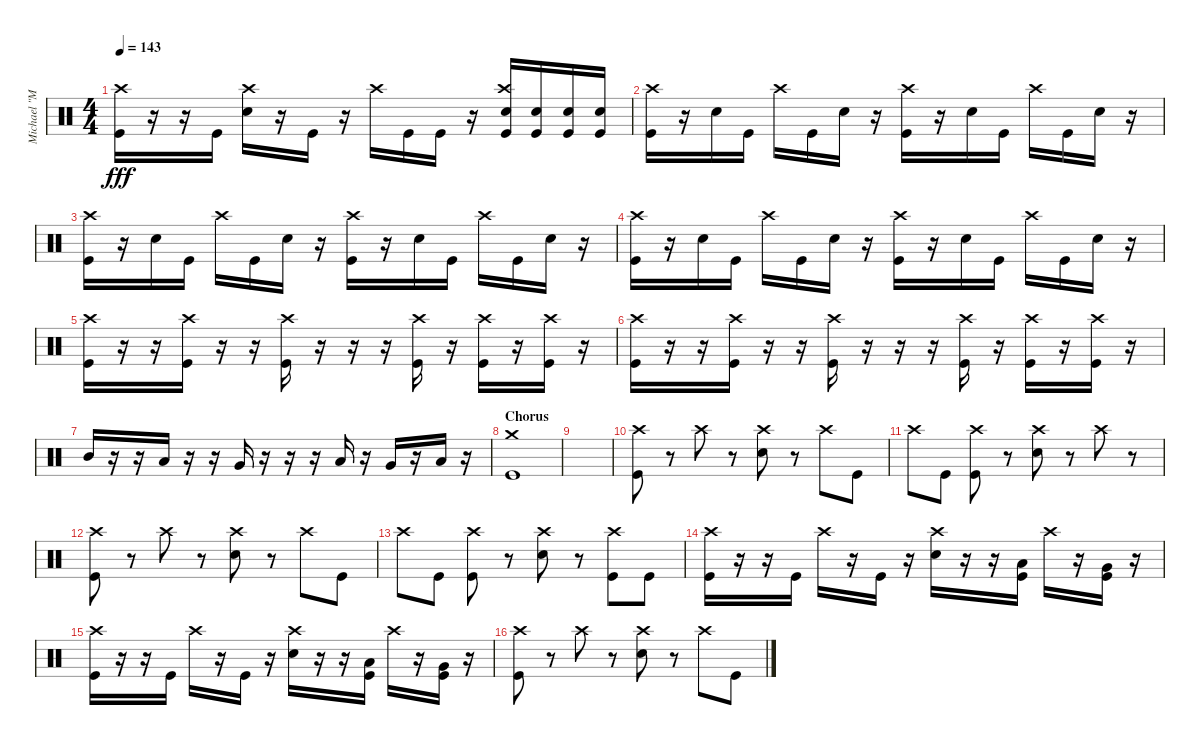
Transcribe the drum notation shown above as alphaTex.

\track ("Michael \"Moose\" Thomas" "Michael \"M") {instrument percussion}
\staff {score}
\articulation defaults
\ts (4 4)
\tempo 143
\clef neutral
\ks c
("Kick (hit)" "Crash high (hit)").16{dy fff} r.16 r.16 "Kick (hit)".16 ("Snare (hit) 2" "Crash high (hit)").16 r.16 "Kick (hit)".16 r.16 "Crash high (hit)".16 "Kick (hit)".16 "Kick (hit)".16 r.16 ("Kick (hit)" "Snare (hit) 2" "Crash high (hit)").16 ("Kick (hit)" "Snare (hit) 2").16 ("Kick (hit)" "Snare (hit) 2").16 ("Snare (hit) 2" "Kick (hit)").16 |
("Kick (hit)" "Crash high (hit)").16 r.16 "Snare (hit) 2".16 "Kick (hit)".16 "Crash high (hit)".16 "Kick (hit)".16 "Snare (hit) 2".16 r.16 ("Kick (hit)" "Crash high (hit)").16 r.16 "Snare (hit) 2".16 "Kick (hit)".16 "Crash high (hit)".16 "Kick (hit)".16 "Snare (hit) 2".16 r.16 |
("Kick (hit)" "Crash high (hit)").16 r.16 "Snare (hit) 2".16 "Kick (hit)".16 "Crash high (hit)".16 "Kick (hit)".16 "Snare (hit) 2".16 r.16 ("Kick (hit)" "Crash high (hit)").16 r.16 "Snare (hit) 2".16 "Kick (hit)".16 "Crash high (hit)".16 "Kick (hit)".16 "Snare (hit) 2".16 r.16 |
("Kick (hit)" "Crash high (hit)").16 r.16 "Snare (hit) 2".16 "Kick (hit)".16 "Crash high (hit)".16 "Kick (hit)".16 "Snare (hit) 2".16 r.16 ("Kick (hit)" "Crash high (hit)").16 r.16 "Snare (hit) 2".16 "Kick (hit)".16 "Crash high (hit)".16 "Kick (hit)".16 "Snare (hit) 2".16 r.16 |
("Kick (hit)" "Crash high (hit)").16 r.16 r.16 ("Kick (hit)" "Crash high (hit)").16 r.16 r.16 ("Kick (hit)" "Crash high (hit)").16 r.16 r.16 r.16 ("Kick (hit)" "Crash high (hit)").16 r.16 ("Kick (hit)" "Crash high (hit)").16 r.16 ("Kick (hit)" "Crash high (hit)").16 r.16 |
("Kick (hit)" "Crash high (hit)").16 r.16 r.16 ("Kick (hit)" "Crash high (hit)").16 r.16 r.16 ("Kick (hit)" "Crash high (hit)").16 r.16 r.16 r.16 ("Kick (hit)" "Crash high (hit)").16 r.16 ("Kick (hit)" "Crash high (hit)").16 r.16 ("Kick (hit)" "Crash high (hit)").16 r.16 |
"Mid Tom (hit)".16 r.16 r.16 "Low Tom (hit)".16 r.16 r.16 "Very Low Tom (hit)".16 r.16 r.16 r.16 "Low Tom (hit)".16 r.16 "Very Low Tom (hit)".16 r.16 "Low Floor Tom (hit)".16 r.16 |
\section ("" "Chorus")
("Kick (hit)" "Crash medium (hit)").1 |
|
("Kick (hit)" "Crash high (hit)").8 r.8 "Crash high (hit)".8 r.8 ("Snare (hit) 2" "Crash high (hit)").8 r.8 "Crash high (hit)".8 "Kick (hit)".8 |
"Crash high (hit)".8 "Kick (hit)".8 ("Kick (hit)" "Crash high (hit)").8 r.8 ("Snare (hit) 2" "Crash high (hit)").8 r.8 "Crash high (hit)".8 r.8 |
("Kick (hit)" "Crash high (hit)").8 r.8 "Crash high (hit)".8 r.8 ("Snare (hit) 2" "Crash high (hit)").8 r.8 "Crash high (hit)".8 "Kick (hit)".8 |
"Crash high (hit)".8 "Kick (hit)".8 ("Kick (hit)" "Crash high (hit)").8 r.8 ("Snare (hit) 2" "Crash high (hit)").8 r.8 ("Crash high (hit)" "Kick (hit)").8 "Kick (hit)".8 |
("Kick (hit)" "Crash high (hit)").16 r.16 r.16 "Kick (hit)".16 "Crash high (hit)".16 r.16 "Kick (hit)".16 r.16 ("Snare (hit) 2" "Crash high (hit)").16 r.16 r.16 ("Kick (hit)" "Low Tom (hit)").16 "Crash high (hit)".16 r.16 ("Kick (hit)" "Very Low Tom (hit)").16 r.16 |
("Kick (hit)" "Crash high (hit)").16 r.16 r.16 "Kick (hit)".16 "Crash high (hit)".16 r.16 "Kick (hit)".16 r.16 ("Snare (hit) 2" "Crash high (hit)").16 r.16 r.16 ("Kick (hit)" "Low Tom (hit)").16 "Crash high (hit)".16 r.16 ("Kick (hit)" "Very Low Tom (hit)").16 r.16 |
("Kick (hit)" "Crash high (hit)").8 r.8 "Crash high (hit)".8 r.8 ("Snare (hit) 2" "Crash high (hit)").8 r.8 "Crash high (hit)".8 "Kick (hit)".8
